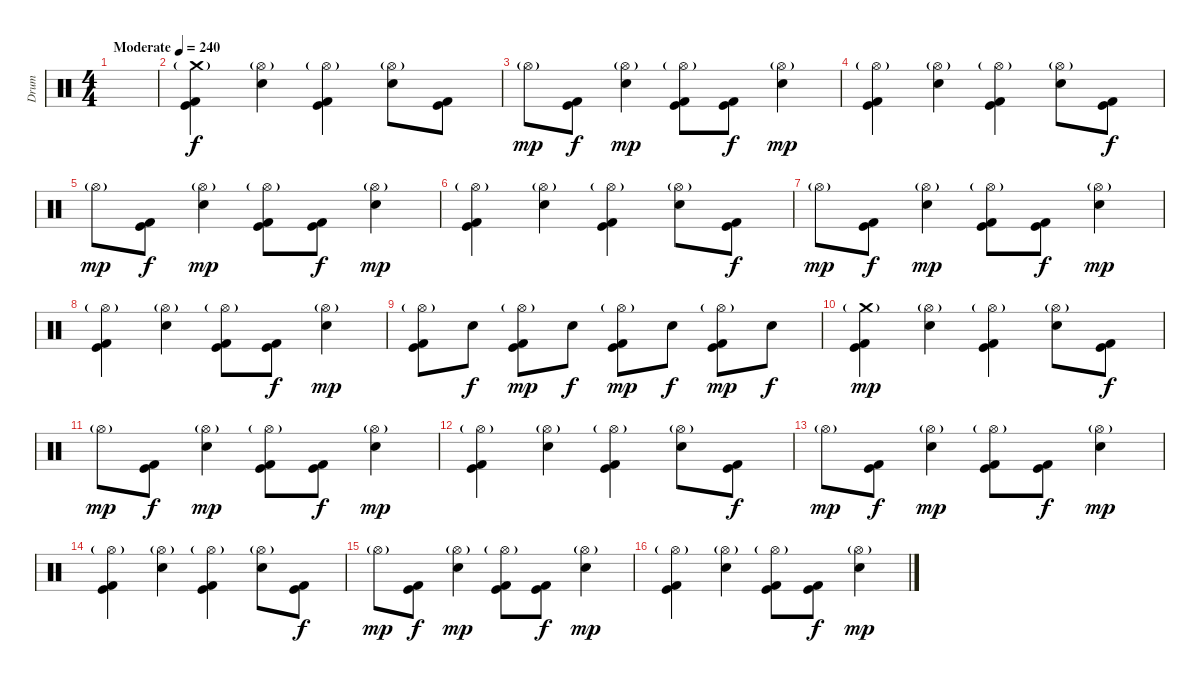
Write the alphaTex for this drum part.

\track ("Drum" "Drum") {instrument percussion}
\staff {score}
\articulation defaults
\ts (4 4)
\tempo (240 "Moderate")
\clef neutral
\ks c
|
("Crash medium (hit)"{g} "Kick (hit)" "Kick (hit) 2").4 ("Hi-Hat (open)"{g} "Electric Snare (hit)").4 ("Hi-Hat (open)"{g} "Kick (hit)" "Kick (hit) 2").4 ("Hi-Hat (open)"{g} "Electric Snare (hit)").8 ("Kick (hit)" "Kick (hit) 2").8{dy f} |
"Hi-Hat (open)"{g}.8{dy mp} ("Kick (hit)" "Kick (hit) 2").8{dy f} ("Hi-Hat (open)"{g} "Electric Snare (hit)").4{dy mp} ("Hi-Hat (open)"{g} "Kick (hit)" "Kick (hit) 2").8 ("Kick (hit)" "Kick (hit) 2").8{dy f} ("Hi-Hat (open)"{g} "Electric Snare (hit)").4{dy mp} |
("Hi-Hat (open)"{g} "Kick (hit)" "Kick (hit) 2").4 ("Hi-Hat (open)"{g} "Electric Snare (hit)").4 ("Hi-Hat (open)"{g} "Kick (hit)" "Kick (hit) 2").4 ("Hi-Hat (open)"{g} "Electric Snare (hit)").8 ("Kick (hit)" "Kick (hit) 2").8{dy f} |
"Hi-Hat (open)"{g}.8{dy mp} ("Kick (hit)" "Kick (hit) 2").8{dy f} ("Hi-Hat (open)"{g} "Electric Snare (hit)").4{dy mp} ("Hi-Hat (open)"{g} "Kick (hit)" "Kick (hit) 2").8 ("Kick (hit)" "Kick (hit) 2").8{dy f} ("Hi-Hat (open)"{g} "Electric Snare (hit)").4{dy mp} |
("Hi-Hat (open)"{g} "Kick (hit)" "Kick (hit) 2").4 ("Hi-Hat (open)"{g} "Electric Snare (hit)").4 ("Hi-Hat (open)"{g} "Kick (hit)" "Kick (hit) 2").4 ("Hi-Hat (open)"{g} "Electric Snare (hit)").8 ("Kick (hit)" "Kick (hit) 2").8{dy f} |
"Hi-Hat (open)"{g}.8{dy mp} ("Kick (hit)" "Kick (hit) 2").8{dy f} ("Hi-Hat (open)"{g} "Electric Snare (hit)").4{dy mp} ("Hi-Hat (open)"{g} "Kick (hit)" "Kick (hit) 2").8 ("Kick (hit)" "Kick (hit) 2").8{dy f} ("Hi-Hat (open)"{g} "Electric Snare (hit)").4{dy mp} |
("Hi-Hat (open)"{g} "Kick (hit)" "Kick (hit) 2").4 ("Hi-Hat (open)"{g} "Electric Snare (hit)").4 ("Hi-Hat (open)"{g} "Kick (hit)" "Kick (hit) 2").8 ("Kick (hit)" "Kick (hit) 2").8{dy f} ("Hi-Hat (open)"{g} "Electric Snare (hit)").4{dy mp} |
("Hi-Hat (open)"{g} "Kick (hit)" "Kick (hit) 2").8 "Electric Snare (hit)".8{dy f} ("Hi-Hat (open)"{g} "Kick (hit)" "Kick (hit) 2").8{dy mp} "Electric Snare (hit)".8{dy f} ("Hi-Hat (open)"{g} "Kick (hit)" "Kick (hit) 2").8{dy mp} "Electric Snare (hit)".8{dy f} ("Hi-Hat (open)"{g} "Kick (hit)" "Kick (hit) 2").8{dy mp} "Electric Snare (hit)".8{dy f} |
("Crash medium (hit)"{g} "Kick (hit)" "Kick (hit) 2").4{dy mp} ("Hi-Hat (open)"{g} "Electric Snare (hit)").4 ("Hi-Hat (open)"{g} "Kick (hit)" "Kick (hit) 2").4 ("Hi-Hat (open)"{g} "Electric Snare (hit)").8 ("Kick (hit)" "Kick (hit) 2").8{dy f} |
"Hi-Hat (open)"{g}.8{dy mp} ("Kick (hit)" "Kick (hit) 2").8{dy f} ("Hi-Hat (open)"{g} "Electric Snare (hit)").4{dy mp} ("Hi-Hat (open)"{g} "Kick (hit)" "Kick (hit) 2").8 ("Kick (hit)" "Kick (hit) 2").8{dy f} ("Hi-Hat (open)"{g} "Electric Snare (hit)").4{dy mp} |
("Hi-Hat (open)"{g} "Kick (hit)" "Kick (hit) 2").4 ("Hi-Hat (open)"{g} "Electric Snare (hit)").4 ("Hi-Hat (open)"{g} "Kick (hit)" "Kick (hit) 2").4 ("Hi-Hat (open)"{g} "Electric Snare (hit)").8 ("Kick (hit)" "Kick (hit) 2").8{dy f} |
"Hi-Hat (open)"{g}.8{dy mp} ("Kick (hit)" "Kick (hit) 2").8{dy f} ("Hi-Hat (open)"{g} "Electric Snare (hit)").4{dy mp} ("Hi-Hat (open)"{g} "Kick (hit)" "Kick (hit) 2").8 ("Kick (hit)" "Kick (hit) 2").8{dy f} ("Hi-Hat (open)"{g} "Electric Snare (hit)").4{dy mp} |
("Hi-Hat (open)"{g} "Kick (hit)" "Kick (hit) 2").4 ("Hi-Hat (open)"{g} "Electric Snare (hit)").4 ("Hi-Hat (open)"{g} "Kick (hit)" "Kick (hit) 2").4 ("Hi-Hat (open)"{g} "Electric Snare (hit)").8 ("Kick (hit)" "Kick (hit) 2").8{dy f} |
"Hi-Hat (open)"{g}.8{dy mp} ("Kick (hit)" "Kick (hit) 2").8{dy f} ("Hi-Hat (open)"{g} "Electric Snare (hit)").4{dy mp} ("Hi-Hat (open)"{g} "Kick (hit)" "Kick (hit) 2").8 ("Kick (hit)" "Kick (hit) 2").8{dy f} ("Hi-Hat (open)"{g} "Electric Snare (hit)").4{dy mp} |
("Hi-Hat (open)"{g} "Kick (hit)" "Kick (hit) 2").4 ("Hi-Hat (open)"{g} "Electric Snare (hit)").4 ("Hi-Hat (open)"{g} "Kick (hit)" "Kick (hit) 2").8 ("Kick (hit)" "Kick (hit) 2").8{dy f} ("Hi-Hat (open)"{g} "Electric Snare (hit)").4{dy mp}
